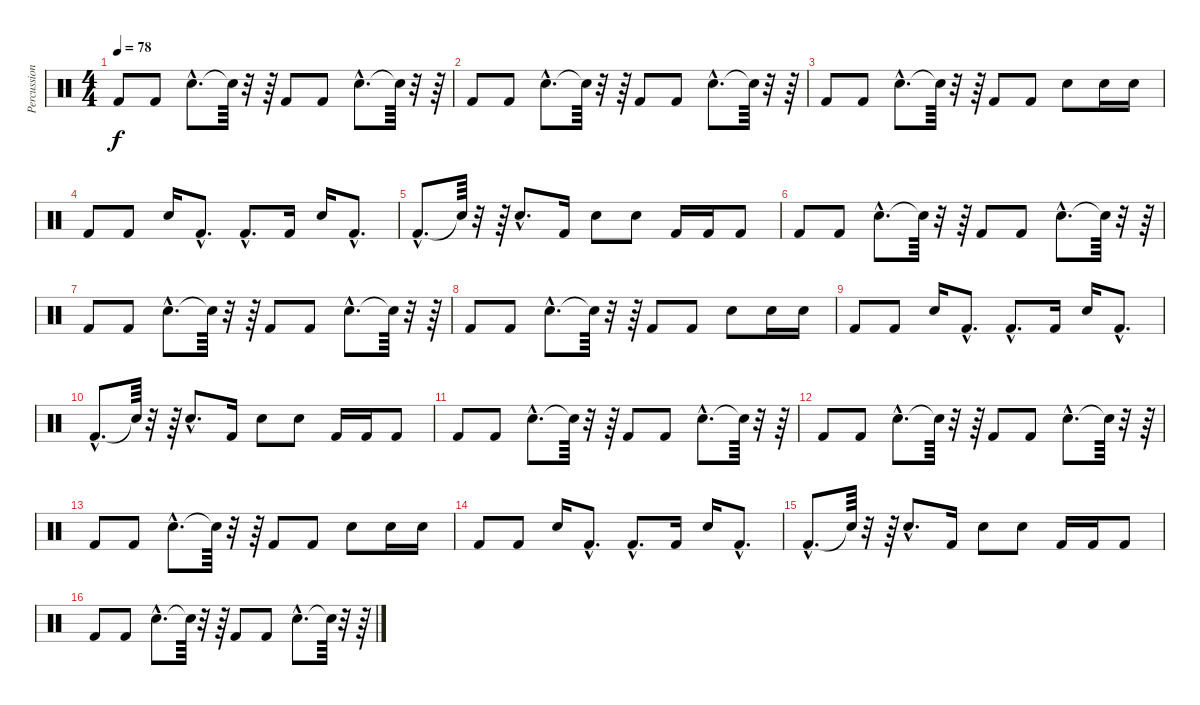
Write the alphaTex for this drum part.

\track ("Percussion" "Percussion") {instrument percussion}
\staff {score}
\articulation defaults
\ts (4 4)
\tempo 78
\clef neutral
\ks c "Kick (hit) 2".8{dy f} "Kick (hit) 2".8 "Snare (hit) 2"{hac}.8{d} "Snare (hit)"{t}.64
r.32 r.64 "Kick (hit) 2".8 "Kick (hit) 2".8 "Snare (hit) 2"{hac}.8{d} "Snare (hit)"{t}.64 r.32 r.64 |
"Kick (hit) 2".8 "Kick (hit) 2".8 "Snare (hit) 2"{hac}.8{d} "Snare (hit)"{t}.64 r.32 r.64 "Kick (hit) 2".8 "Kick (hit) 2".8 "Snare (hit) 2"{hac}.8{d} "Snare (hit)"{t}.64 r.32 r.64 |
"Kick (hit) 2".8 "Kick (hit) 2".8 "Snare (hit) 2"{hac}.8{d} "Snare (hit)"{t}.64 r.32 r.64 "Kick (hit) 2".8 "Kick (hit) 2".8 "Snare (hit) 2".8 "Snare (hit) 2".16 "Snare (hit) 2".16 |
"Kick (hit) 2".8 "Kick (hit) 2".8 "Snare (hit) 2".16 "Kick (hit) 2"{hac}.8{d} "Kick (hit) 2"{hac}.8{d} "Kick (hit) 2".16 "Snare (hit) 2".16 "Kick (hit) 2"{hac}.8{d} |
"Kick (hit) 2"{hac}.8{d} "Snare (hit)"{t}.64 r.32 r.64 "Snare (hit) 2"{hac}.8{d} "Kick (hit) 2".16 "Snare (hit) 2".8 "Snare (hit) 2".8 "Kick (hit) 2".16 "Kick (hit) 2".16 "Kick (hit) 2".8 |
"Kick (hit) 2".8 "Kick (hit) 2".8 "Snare (hit) 2"{hac}.8{d} "Snare (hit)"{t}.64 r.32 r.64 "Kick (hit) 2".8 "Kick (hit) 2".8 "Snare (hit) 2"{hac}.8{d} "Snare (hit)"{t}.64 r.32 r.64 |
"Kick (hit) 2".8 "Kick (hit) 2".8 "Snare (hit) 2"{hac}.8{d} "Snare (hit)"{t}.64 r.32 r.64 "Kick (hit) 2".8 "Kick (hit) 2".8 "Snare (hit) 2"{hac}.8{d} "Snare (hit)"{t}.64 r.32 r.64 |
"Kick (hit) 2".8 "Kick (hit) 2".8 "Snare (hit) 2"{hac}.8{d} "Snare (hit)"{t}.64 r.32 r.64 "Kick (hit) 2".8 "Kick (hit) 2".8 "Snare (hit) 2".8 "Snare (hit) 2".16 "Snare (hit) 2".16 |
"Kick (hit) 2".8 "Kick (hit) 2".8 "Snare (hit) 2".16 "Kick (hit) 2"{hac}.8{d} "Kick (hit) 2"{hac}.8{d} "Kick (hit) 2".16 "Snare (hit) 2".16 "Kick (hit) 2"{hac}.8{d} |
"Kick (hit) 2"{hac}.8{d} "Snare (hit)"{t}.64 r.32 r.64 "Snare (hit) 2"{hac}.8{d} "Kick (hit) 2".16 "Snare (hit) 2".8 "Snare (hit) 2".8 "Kick (hit) 2".16 "Kick (hit) 2".16 "Kick (hit) 2".8 |
"Kick (hit) 2".8 "Kick (hit) 2".8 "Snare (hit) 2"{hac}.8{d} "Snare (hit)"{t}.64 r.32 r.64 "Kick (hit) 2".8 "Kick (hit) 2".8 "Snare (hit) 2"{hac}.8{d} "Snare (hit)"{t}.64 r.32 r.64 |
"Kick (hit) 2".8 "Kick (hit) 2".8 "Snare (hit) 2"{hac}.8{d} "Snare (hit)"{t}.64 r.32 r.64 "Kick (hit) 2".8 "Kick (hit) 2".8 "Snare (hit) 2"{hac}.8{d} "Snare (hit)"{t}.64 r.32 r.64 |
"Kick (hit) 2".8 "Kick (hit) 2".8 "Snare (hit) 2"{hac}.8{d} "Snare (hit)"{t}.64 r.32 r.64 "Kick (hit) 2".8 "Kick (hit) 2".8 "Snare (hit) 2".8 "Snare (hit) 2".16 "Snare (hit) 2".16 |
"Kick (hit) 2".8 "Kick (hit) 2".8 "Snare (hit) 2".16 "Kick (hit) 2"{hac}.8{d} "Kick (hit) 2"{hac}.8{d} "Kick (hit) 2".16 "Snare (hit) 2".16 "Kick (hit) 2"{hac}.8{d} |
"Kick (hit) 2"{hac}.8{d} "Snare (hit)"{t}.64 r.32 r.64 "Snare (hit) 2"{hac}.8{d} "Kick (hit) 2".16 "Snare (hit) 2".8 "Snare (hit) 2".8 "Kick (hit) 2".16 "Kick (hit) 2".16 "Kick (hit) 2".8 |
"Kick (hit) 2".8 "Kick (hit) 2".8 "Snare (hit) 2"{hac}.8{d} "Snare (hit)"{t}.64 r.32 r.64 "Kick (hit) 2".8 "Kick (hit) 2".8 "Snare (hit) 2"{hac}.8{d} "Snare (hit)"{t}.64 r.32 r.64
